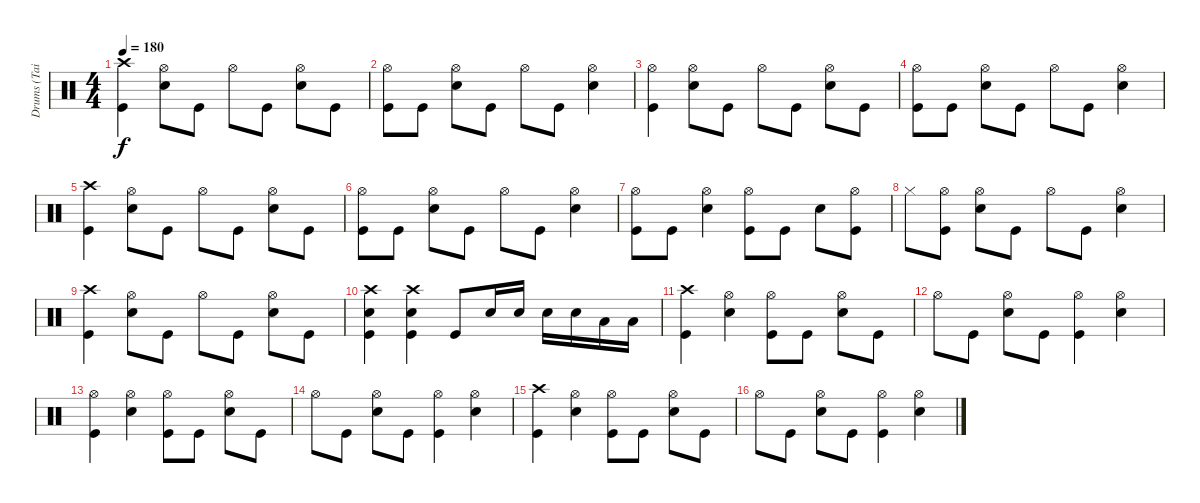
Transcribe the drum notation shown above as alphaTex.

\track ("Drums (Tainaka Ritsu)" "Drums (Tai") {instrument percussion}
\staff {score}
\articulation defaults
\ts (4 4)
\tempo 180
\clef neutral
\ks c
("Crash high (hit)" "Kick (hit)").4{dy f} ("Hi-Hat (open)" "Snare (hit) 2").8 "Kick (hit)".8 "Hi-Hat (open)".8 "Kick (hit)".8 ("Hi-Hat (open)" "Snare (hit) 2").8 "Kick (hit)".8 |
("Hi-Hat (open)" "Kick (hit)").8 "Kick (hit)".8 ("Hi-Hat (open)" "Snare (hit) 2").8 "Kick (hit)".8 "Hi-Hat (open)".8 "Kick (hit)".8 ("Hi-Hat (open)" "Snare (hit) 2").4 |
("Hi-Hat (open)" "Kick (hit)").4 ("Hi-Hat (open)" "Snare (hit) 2").8 "Kick (hit)".8 "Hi-Hat (open)".8 "Kick (hit)".8 ("Hi-Hat (open)" "Snare (hit) 2").8 "Kick (hit)".8 |
("Hi-Hat (open)" "Kick (hit)").8 "Kick (hit)".8 ("Hi-Hat (open)" "Snare (hit) 2").8 "Kick (hit)".8 "Hi-Hat (open)".8 "Kick (hit)".8 ("Hi-Hat (open)" "Snare (hit) 2").4 |
("Crash high (hit)" "Kick (hit)").4 ("Hi-Hat (open)" "Snare (hit) 2").8 "Kick (hit)".8 "Hi-Hat (open)".8 "Kick (hit)".8 ("Hi-Hat (open)" "Snare (hit) 2").8 "Kick (hit)".8 |
("Hi-Hat (open)" "Kick (hit)").8 "Kick (hit)".8 ("Hi-Hat (open)" "Snare (hit) 2").8 "Kick (hit)".8 "Hi-Hat (open)".8 "Kick (hit)".8 ("Hi-Hat (open)" "Snare (hit) 2").4 |
("Hi-Hat (open)" "Kick (hit)").8 "Kick (hit)".8 ("Hi-Hat (open)" "Snare (hit) 2").4 ("Hi-Hat (open)" "Kick (hit)").8 "Kick (hit)".8 "Snare (hit) 2".8 ("Hi-Hat (open)" "Kick (hit)").8 |
"Hi-Hat (closed)".8 ("Hi-Hat (open)" "Kick (hit)").8 ("Hi-Hat (open)" "Snare (hit) 2").8 "Kick (hit)".8 "Hi-Hat (open)".8 "Kick (hit)".8 ("Hi-Hat (open)" "Snare (hit) 2").4 |
("Crash high (hit)" "Kick (hit)").4 ("Hi-Hat (open)" "Snare (hit) 2").8 "Kick (hit)".8 "Hi-Hat (open)".8 "Kick (hit)".8 ("Hi-Hat (open)" "Snare (hit) 2").8 "Kick (hit)".8 |
("Crash high (hit)" "Snare (hit) 2" "Kick (hit)").4 ("Crash high (hit)" "Snare (hit) 2" "Kick (hit)").4 "Kick (hit)".8 "Snare (hit) 2".16 "Snare (hit) 2".16 "Snare (hit) 2".16 "Snare (hit) 2".16 "Low Tom (hit)".16 "Low Tom (hit)".16 |
("Crash high (hit)" "Kick (hit)").4 ("Hi-Hat (open)" "Snare (hit) 2").4 ("Hi-Hat (open)" "Kick (hit)").8 "Kick (hit)".8 ("Hi-Hat (open)" "Snare (hit) 2").8 "Kick (hit)".8 |
"Hi-Hat (open)".8 "Kick (hit)".8 ("Hi-Hat (open)" "Snare (hit) 2").8 "Kick (hit)".8 ("Hi-Hat (open)" "Kick (hit)").4 ("Hi-Hat (open)" "Snare (hit) 2").4 |
("Hi-Hat (open)" "Kick (hit)").4 ("Hi-Hat (open)" "Snare (hit) 2").4 ("Hi-Hat (open)" "Kick (hit)").8 "Kick (hit)".8 ("Hi-Hat (open)" "Snare (hit) 2").8 "Kick (hit)".8 |
"Hi-Hat (open)".8 "Kick (hit)".8 ("Hi-Hat (open)" "Snare (hit) 2").8 "Kick (hit)".8 ("Hi-Hat (open)" "Kick (hit)").4 ("Hi-Hat (open)" "Snare (hit) 2").4 |
("Crash high (hit)" "Kick (hit)").4 ("Hi-Hat (open)" "Snare (hit) 2").4 ("Hi-Hat (open)" "Kick (hit)").8 "Kick (hit)".8 ("Hi-Hat (open)" "Snare (hit) 2").8 "Kick (hit)".8 |
"Hi-Hat (open)".8 "Kick (hit)".8 ("Hi-Hat (open)" "Snare (hit) 2").8 "Kick (hit)".8 ("Hi-Hat (open)" "Kick (hit)").4 ("Hi-Hat (open)" "Snare (hit) 2").4
